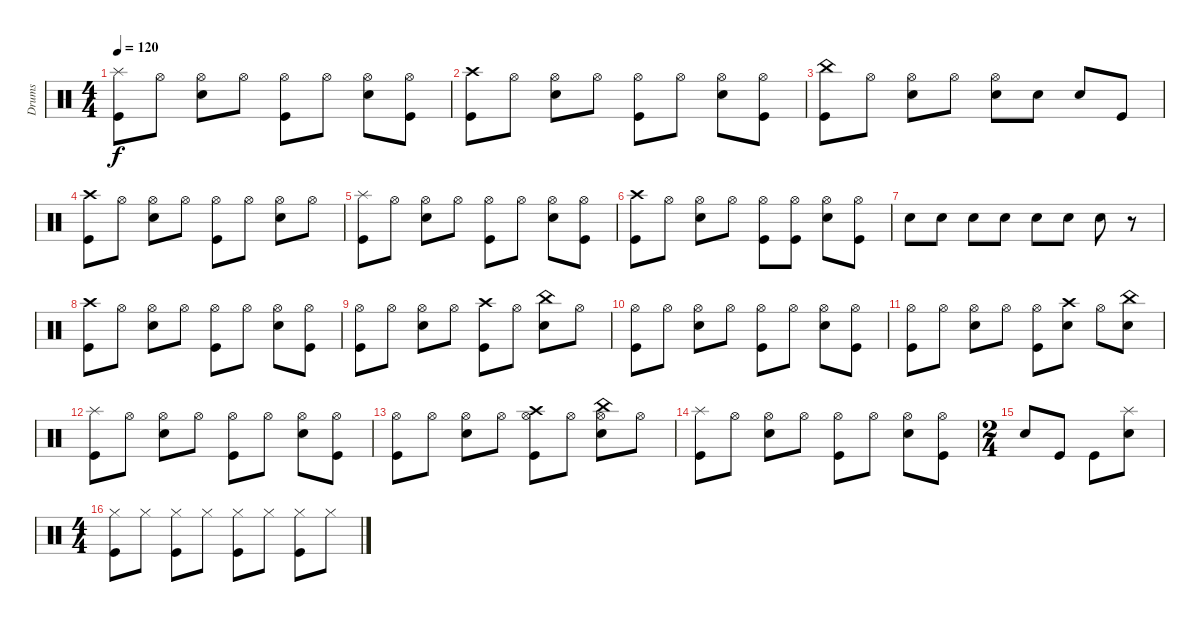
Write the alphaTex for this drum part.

\track ("Drums" "Drums") {instrument percussion}
\staff {score}
\articulation defaults
\ts (4 4)
\tempo 120
\clef neutral
\ks c
("Kick (hit)" "Splash (hit)").8{dy f} "Hi-Hat (open)".8 ("Hi-Hat (open)" "Snare (hit) 2").8 "Hi-Hat (open)".8 ("Hi-Hat (open)" "Kick (hit)").8 "Hi-Hat (open)".8 ("Hi-Hat (open)" "Snare (hit) 2").8 ("Hi-Hat (open)" "Kick (hit)").8 |
("Kick (hit)" "Crash high (hit)").8 "Hi-Hat (open)".8 ("Hi-Hat (open)" "Snare (hit) 2").8 "Hi-Hat (open)".8 ("Hi-Hat (open)" "Kick (hit)").8 "Hi-Hat (open)".8 ("Hi-Hat (open)" "Snare (hit) 2").8 ("Hi-Hat (open)" "Kick (hit)").8 |
("Kick (hit)" "China (hit)").8 "Hi-Hat (open)".8 ("Hi-Hat (open)" "Snare (hit) 2").8 "Hi-Hat (open)".8 ("Hi-Hat (open)" "Snare (hit) 2").8 "Snare (hit) 2".8 "Snare (hit) 2".8 "Kick (hit)".8 |
("Kick (hit)" "Crash high (hit)").8 "Hi-Hat (open)".8 ("Hi-Hat (open)" "Snare (hit) 2").8 "Hi-Hat (open)".8 ("Hi-Hat (open)" "Kick (hit)").8 "Hi-Hat (open)".8 ("Hi-Hat (open)" "Snare (hit) 2").8 "Hi-Hat (open)".8 |
("Kick (hit)" "Splash (hit)").8 "Hi-Hat (open)".8 ("Hi-Hat (open)" "Snare (hit) 2").8 "Hi-Hat (open)".8 ("Hi-Hat (open)" "Kick (hit)").8 "Hi-Hat (open)".8 ("Hi-Hat (open)" "Snare (hit) 2").8 ("Hi-Hat (open)" "Kick (hit)").8 |
("Kick (hit)" "Crash high (hit)").8 "Hi-Hat (open)".8 ("Hi-Hat (open)" "Snare (hit) 2").8 "Hi-Hat (open)".8 ("Hi-Hat (open)" "Kick (hit)").8 ("Hi-Hat (open)" "Kick (hit)").8 ("Hi-Hat (open)" "Snare (hit) 2").8 ("Hi-Hat (open)" "Kick (hit)").8 |
"Snare (hit) 2".8 "Snare (hit) 2".8 "Snare (hit) 2".8 "Snare (hit) 2".8 "Snare (hit) 2".8 "Snare (hit) 2".8 "Snare (hit) 2".8 r.8 |
("Kick (hit)" "Crash high (hit)").8 "Hi-Hat (open)".8 ("Hi-Hat (open)" "Snare (hit) 2").8 "Hi-Hat (open)".8 ("Hi-Hat (open)" "Kick (hit)").8 "Hi-Hat (open)".8 ("Hi-Hat (open)" "Snare (hit) 2").8 ("Hi-Hat (open)" "Kick (hit)").8 |
("Hi-Hat (open)" "Kick (hit)").8 "Hi-Hat (open)".8 ("Hi-Hat (open)" "Snare (hit) 2").8 "Hi-Hat (open)".8 ("Kick (hit)" "Crash high (hit)").8 "Hi-Hat (open)".8 ("Snare (hit) 2" "China (hit)").8 "Hi-Hat (open)".8 |
("Hi-Hat (open)" "Kick (hit)").8 "Hi-Hat (open)".8 ("Hi-Hat (open)" "Snare (hit) 2").8 "Hi-Hat (open)".8 ("Hi-Hat (open)" "Kick (hit)").8 "Hi-Hat (open)".8 ("Hi-Hat (open)" "Snare (hit) 2").8 ("Hi-Hat (open)" "Kick (hit)").8 |
("Hi-Hat (open)" "Kick (hit)").8 "Hi-Hat (open)".8 ("Hi-Hat (open)" "Snare (hit) 2").8 "Hi-Hat (open)".8 ("Hi-Hat (open)" "Kick (hit)").8 ("Snare (hit) 2" "Crash high (hit)").8 "Hi-Hat (open)".8 ("Snare (hit) 2" "China (hit)").8 |
("Kick (hit)" "Splash (hit)").8 "Hi-Hat (open)".8 ("Hi-Hat (open)" "Snare (hit) 2").8 "Hi-Hat (open)".8 ("Hi-Hat (open)" "Kick (hit)").8 "Hi-Hat (open)".8 ("Hi-Hat (open)" "Snare (hit) 2").8 ("Hi-Hat (open)" "Kick (hit)").8 |
("Hi-Hat (open)" "Kick (hit)").8 "Hi-Hat (open)".8 ("Hi-Hat (open)" "Snare (hit) 2").8 "Hi-Hat (open)".8 ("Hi-Hat (open)" "Kick (hit)" "Crash high (hit)").8 "Hi-Hat (open)".8 ("Hi-Hat (open)" "Snare (hit) 2" "China (hit)").8 "Hi-Hat (open)".8 |
("Kick (hit)" "Splash (hit)").8 "Hi-Hat (open)".8 ("Hi-Hat (open)" "Snare (hit) 2").8 "Hi-Hat (open)".8 ("Hi-Hat (open)" "Kick (hit)").8 "Hi-Hat (open)".8 ("Hi-Hat (open)" "Snare (hit) 2").8 ("Hi-Hat (open)" "Kick (hit)").8 |
\ts (2 4)
"Snare (hit) 2".8 "Kick (hit)".8 "Kick (hit)".8 ("Snare (hit) 2" "Splash (hit)").8 |
\ts (4 4)
("Hi-Hat (closed)" "Kick (hit)").8 "Hi-Hat (closed)".8 ("Hi-Hat (closed)" "Kick (hit)").8 "Hi-Hat (closed)".8 ("Hi-Hat (closed)" "Kick (hit)").8 "Hi-Hat (closed)".8 ("Hi-Hat (closed)" "Kick (hit)").8 "Hi-Hat (closed)".8
